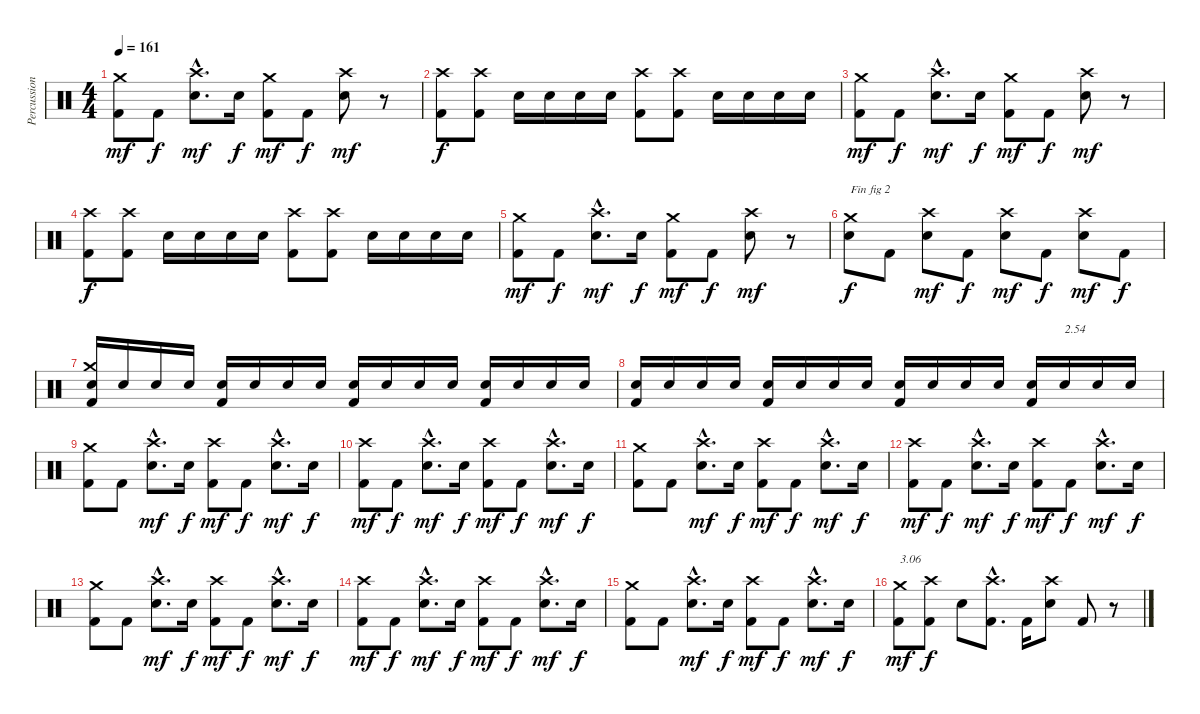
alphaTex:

\track ("Percussions" "Percussion") {instrument percussion}
\staff {score}
\articulation defaults
\ts (4 4)
\tempo 161
\clef neutral
\ks c
("Kick (hit) 2" "Crash medium (hit)").8{dy mf} "Kick (hit) 2".8{dy f} ("Electric Snare (hit)"{hac} "Crash high (hit)"{hac}).8{d dy mf} "Electric Snare (hit)".16{dy f} ("Kick (hit) 2" "Crash medium (hit)").8{dy mf} "Kick (hit) 2".8{dy f} ("Electric Snare (hit)" "Crash high (hit)").8{dy mf} r.8 |
("Kick (hit) 2" "Crash high (hit)").8{dy f} ("Kick (hit) 2" "Crash high (hit)").8 "Electric Snare (hit)".16 "Electric Snare (hit)".16 "Electric Snare (hit)".16 "Electric Snare (hit)".16 ("Kick (hit) 2" "Crash high (hit)").8 ("Kick (hit) 2" "Crash high (hit)").8 "Electric Snare (hit)".16 "Electric Snare (hit)".16 "Electric Snare (hit)".16 "Electric Snare (hit)".16 |
("Kick (hit) 2" "Crash medium (hit)").8{dy mf} "Kick (hit) 2".8{dy f} ("Electric Snare (hit)"{hac} "Crash high (hit)"{hac}).8{d dy mf} "Electric Snare (hit)".16{dy f} ("Kick (hit) 2" "Crash medium (hit)").8{dy mf} "Kick (hit) 2".8{dy f} ("Electric Snare (hit)" "Crash high (hit)").8{dy mf} r.8 |
("Kick (hit) 2" "Crash high (hit)").8{dy f} ("Kick (hit) 2" "Crash high (hit)").8 "Electric Snare (hit)".16 "Electric Snare (hit)".16 "Electric Snare (hit)".16 "Electric Snare (hit)".16 ("Kick (hit) 2" "Crash high (hit)").8 ("Kick (hit) 2" "Crash high (hit)").8 "Electric Snare (hit)".16 "Electric Snare (hit)".16 "Electric Snare (hit)".16 "Electric Snare (hit)".16 |
("Kick (hit) 2" "Crash medium (hit)").8{dy mf} "Kick (hit) 2".8{dy f} ("Electric Snare (hit)"{hac} "Crash high (hit)"{hac}).8{d dy mf} "Electric Snare (hit)".16{dy f} ("Kick (hit) 2" "Crash medium (hit)").8{dy mf} "Kick (hit) 2".8{dy f} ("Electric Snare (hit)" "Crash high (hit)").8{dy mf} r.8 |
("Electric Snare (hit)" "Crash medium (hit)").8{txt "Fin fig 2" dy f} "Kick (hit) 2".8 ("Electric Snare (hit)" "Crash high (hit)").8{dy mf} "Kick (hit) 2".8{dy f} ("Electric Snare (hit)" "Crash high (hit)").8{dy mf} "Kick (hit) 2".8{dy f} ("Electric Snare (hit)" "Crash high (hit)").8{dy mf} "Kick (hit) 2".8{dy f} |
("Electric Snare (hit)" "Kick (hit) 2" "Crash medium (hit)").16 "Electric Snare (hit)".16 "Electric Snare (hit)".16 "Electric Snare (hit)".16 ("Electric Snare (hit)" "Kick (hit) 2").16 "Electric Snare (hit)".16 "Electric Snare (hit)".16 "Electric Snare (hit)".16 ("Electric Snare (hit)" "Kick (hit) 2").16 "Electric Snare (hit)".16 "Electric Snare (hit)".16 "Electric Snare (hit)".16 ("Electric Snare (hit)" "Kick (hit) 2").16 "Electric Snare (hit)".16 "Electric Snare (hit)".16 "Electric Snare (hit)".16 |
("Electric Snare (hit)" "Kick (hit) 2").16 "Electric Snare (hit)".16 "Electric Snare (hit)".16 "Electric Snare (hit)".16 ("Electric Snare (hit)" "Kick (hit) 2").16 "Electric Snare (hit)".16 "Electric Snare (hit)".16 "Electric Snare (hit)".16 ("Electric Snare (hit)" "Kick (hit) 2").16 "Electric Snare (hit)".16 "Electric Snare (hit)".16 "Electric Snare (hit)".16 ("Electric Snare (hit)" "Kick (hit) 2").16 "Electric Snare (hit)".16{txt "2.54"} "Electric Snare (hit)".16 "Electric Snare (hit)".16 |
("Kick (hit) 2" "Crash medium (hit)").8 "Kick (hit) 2".8 ("Electric Snare (hit)"{hac} "Crash high (hit)"{hac}).8{d dy mf} "Electric Snare (hit)".16{dy f} ("Kick (hit) 2" "Crash high (hit)").8{dy mf} "Kick (hit) 2".8{dy f} ("Electric Snare (hit)"{hac} "Crash high (hit)"{hac}).8{d dy mf} "Electric Snare (hit)".16{dy f} |
("Kick (hit) 2" "Crash high (hit)").8{dy mf} "Kick (hit) 2".8{dy f} ("Electric Snare (hit)"{hac} "Crash high (hit)"{hac}).8{d dy mf} "Electric Snare (hit)".16{dy f} ("Kick (hit) 2" "Crash high (hit)").8{dy mf} "Kick (hit) 2".8{dy f} ("Electric Snare (hit)"{hac} "Crash high (hit)"{hac}).8{d dy mf} "Electric Snare (hit)".16{dy f} |
("Kick (hit) 2" "Crash medium (hit)").8 "Kick (hit) 2".8 ("Electric Snare (hit)"{hac} "Crash high (hit)"{hac}).8{d dy mf} "Electric Snare (hit)".16{dy f} ("Kick (hit) 2" "Crash high (hit)").8{dy mf} "Kick (hit) 2".8{dy f} ("Electric Snare (hit)"{hac} "Crash high (hit)"{hac}).8{d dy mf} "Electric Snare (hit)".16{dy f} |
("Kick (hit) 2" "Crash high (hit)").8{dy mf} "Kick (hit) 2".8{dy f} ("Electric Snare (hit)"{hac} "Crash high (hit)"{hac}).8{d dy mf} "Electric Snare (hit)".16{dy f} ("Kick (hit) 2" "Crash high (hit)").8{dy mf} "Kick (hit) 2".8{dy f} ("Electric Snare (hit)"{hac} "Crash high (hit)"{hac}).8{d dy mf} "Electric Snare (hit)".16{dy f} |
("Kick (hit) 2" "Crash medium (hit)").8 "Kick (hit) 2".8 ("Electric Snare (hit)"{hac} "Crash high (hit)"{hac}).8{d dy mf} "Electric Snare (hit)".16{dy f} ("Kick (hit) 2" "Crash high (hit)").8{dy mf} "Kick (hit) 2".8{dy f} ("Electric Snare (hit)"{hac} "Crash high (hit)"{hac}).8{d dy mf} "Electric Snare (hit)".16{dy f} |
("Kick (hit) 2" "Crash high (hit)").8{dy mf} "Kick (hit) 2".8{dy f} ("Electric Snare (hit)"{hac} "Crash high (hit)"{hac}).8{d dy mf} "Electric Snare (hit)".16{dy f} ("Kick (hit) 2" "Crash high (hit)").8{dy mf} "Kick (hit) 2".8{dy f} ("Electric Snare (hit)"{hac} "Crash high (hit)"{hac}).8{d dy mf} "Electric Snare (hit)".16{dy f} |
("Kick (hit) 2" "Crash medium (hit)").8 "Kick (hit) 2".8 ("Electric Snare (hit)"{hac} "Crash high (hit)"{hac}).8{d dy mf} "Electric Snare (hit)".16{dy f} ("Kick (hit) 2" "Crash high (hit)").8{dy mf} "Kick (hit) 2".8{dy f} ("Electric Snare (hit)"{hac} "Crash high (hit)"{hac}).8{d dy mf} "Electric Snare (hit)".16{dy f} |
("Kick (hit) 2" "Crash medium (hit)").8{txt "3.06" dy mf} ("Kick (hit) 2" "Crash high (hit)").8{dy f} "Electric Snare (hit)".8 ("Kick (hit) 2"{hac} "Crash high (hit)"{hac}).8{d} "Kick (hit) 2".16 ("Electric Snare (hit)" "Crash high (hit)").8 "Kick (hit) 2".8 r.8
